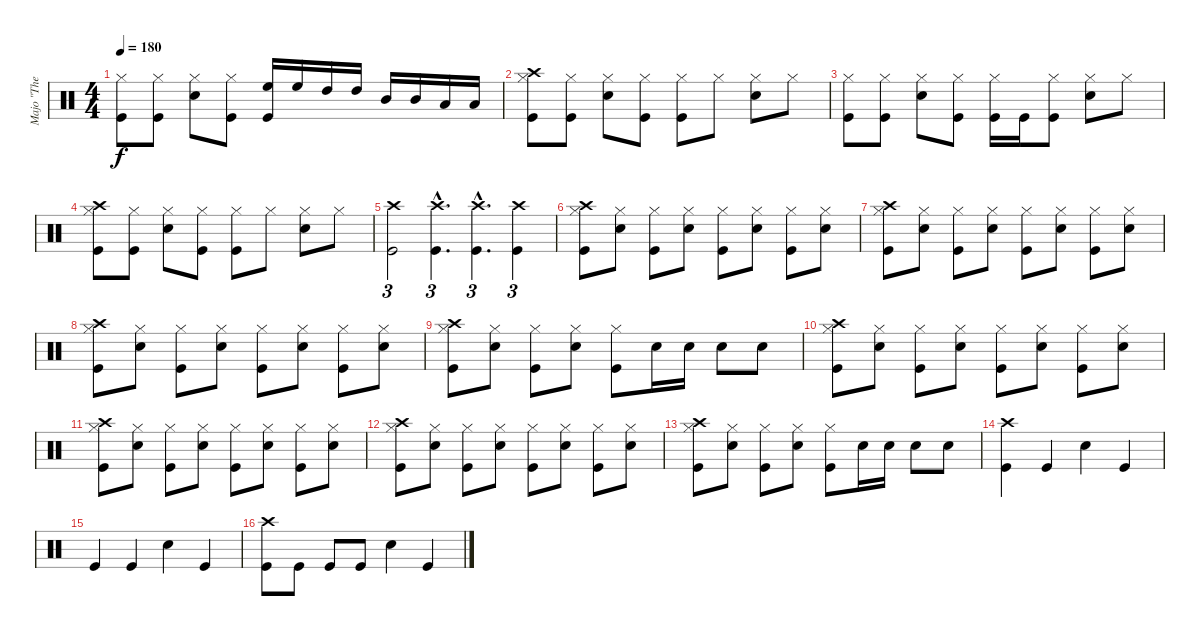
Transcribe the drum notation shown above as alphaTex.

\track ("Majo \"The Dremmel\" Hirt" "Majo \"The ") {instrument percussion}
\staff {score}
\articulation defaults
\ts (4 4)
\tempo 180
\clef neutral
\ks c
("Hi-Hat (closed)" "Kick (hit)").8{dy f} ("Hi-Hat (closed)" "Kick (hit)").8 ("Hi-Hat (closed)" "Electric Snare (hit)").8 ("Hi-Hat (closed)" "Kick (hit)").8 ("High Floor Tom (hit)" "Kick (hit)").16 "High Floor Tom (hit)".16 "High Tom (hit)".16 "High Tom (hit)".16 "Mid Tom (hit)".16 "Mid Tom (hit)".16 "Low Tom (hit)".16 "Low Tom (hit)".16 |
("Crash high (hit)" "Hi-Hat (closed)" "Kick (hit)").8 ("Hi-Hat (closed)" "Kick (hit)").8 ("Hi-Hat (closed)" "Electric Snare (hit)").8 ("Hi-Hat (closed)" "Kick (hit)").8 ("Hi-Hat (closed)" "Kick (hit)").8 "Hi-Hat (closed)".8 ("Hi-Hat (closed)" "Electric Snare (hit)").8 "Hi-Hat (closed)".8 |
("Hi-Hat (closed)" "Kick (hit)").8 ("Hi-Hat (closed)" "Kick (hit)").8 ("Hi-Hat (closed)" "Electric Snare (hit)").8 ("Hi-Hat (closed)" "Kick (hit)").8 ("Hi-Hat (closed)" "Kick (hit)").16 "Kick (hit)".16 ("Hi-Hat (closed)" "Kick (hit)").8 ("Hi-Hat (closed)" "Electric Snare (hit)").8 "Hi-Hat (closed)".8 |
("Crash high (hit)" "Hi-Hat (closed)" "Kick (hit)").8 ("Hi-Hat (closed)" "Kick (hit)").8 ("Hi-Hat (closed)" "Electric Snare (hit)").8 ("Hi-Hat (closed)" "Kick (hit)").8 ("Hi-Hat (closed)" "Kick (hit)").8 "Hi-Hat (closed)".8 ("Hi-Hat (closed)" "Electric Snare (hit)").8 "Hi-Hat (closed)".8 |
("Crash high (hit)" "Kick (hit)").2{tu (3 2)} ("Crash high (hit)"{hac} "Kick (hit)"{hac}).4{d tu (3 2)} ("Crash high (hit)"{hac} "Kick (hit)"{hac}).4{d tu (3 2)} ("Crash high (hit)" "Kick (hit)").4{tu (3 2)} |
("Crash high (hit)" "Hi-Hat (closed)" "Kick (hit)").8 ("Hi-Hat (closed)" "Electric Snare (hit)").8 ("Hi-Hat (closed)" "Kick (hit)").8 ("Hi-Hat (closed)" "Electric Snare (hit)").8 ("Hi-Hat (closed)" "Kick (hit)").8 ("Hi-Hat (closed)" "Electric Snare (hit)").8 ("Hi-Hat (closed)" "Kick (hit)").8 ("Hi-Hat (closed)" "Electric Snare (hit)").8 |
("Crash high (hit)" "Hi-Hat (closed)" "Kick (hit)").8 ("Hi-Hat (closed)" "Electric Snare (hit)").8 ("Hi-Hat (closed)" "Kick (hit)").8 ("Hi-Hat (closed)" "Electric Snare (hit)").8 ("Hi-Hat (closed)" "Kick (hit)").8 ("Hi-Hat (closed)" "Electric Snare (hit)").8 ("Hi-Hat (closed)" "Kick (hit)").8 ("Hi-Hat (closed)" "Electric Snare (hit)").8 |
("Crash high (hit)" "Hi-Hat (closed)" "Kick (hit)").8 ("Hi-Hat (closed)" "Electric Snare (hit)").8 ("Hi-Hat (closed)" "Kick (hit)").8 ("Hi-Hat (closed)" "Electric Snare (hit)").8 ("Hi-Hat (closed)" "Kick (hit)").8 ("Hi-Hat (closed)" "Electric Snare (hit)").8 ("Hi-Hat (closed)" "Kick (hit)").8 ("Hi-Hat (closed)" "Electric Snare (hit)").8 |
("Crash high (hit)" "Hi-Hat (closed)" "Kick (hit)").8 ("Hi-Hat (closed)" "Electric Snare (hit)").8 ("Hi-Hat (closed)" "Kick (hit)").8 ("Hi-Hat (closed)" "Electric Snare (hit)").8 ("Hi-Hat (closed)" "Kick (hit)").8 "Electric Snare (hit)".16 "Electric Snare (hit)".16 "Electric Snare (hit)".8 "Electric Snare (hit)".8 |
("Crash high (hit)" "Hi-Hat (closed)" "Kick (hit)").8 ("Hi-Hat (closed)" "Electric Snare (hit)").8 ("Hi-Hat (closed)" "Kick (hit)").8 ("Hi-Hat (closed)" "Electric Snare (hit)").8 ("Hi-Hat (closed)" "Kick (hit)").8 ("Hi-Hat (closed)" "Electric Snare (hit)").8 ("Hi-Hat (closed)" "Kick (hit)").8 ("Hi-Hat (closed)" "Electric Snare (hit)").8 |
("Crash high (hit)" "Hi-Hat (closed)" "Kick (hit)").8 ("Hi-Hat (closed)" "Electric Snare (hit)").8 ("Hi-Hat (closed)" "Kick (hit)").8 ("Hi-Hat (closed)" "Electric Snare (hit)").8 ("Hi-Hat (closed)" "Kick (hit)").8 ("Hi-Hat (closed)" "Electric Snare (hit)").8 ("Hi-Hat (closed)" "Kick (hit)").8 ("Hi-Hat (closed)" "Electric Snare (hit)").8 |
("Crash high (hit)" "Hi-Hat (closed)" "Kick (hit)").8 ("Hi-Hat (closed)" "Electric Snare (hit)").8 ("Hi-Hat (closed)" "Kick (hit)").8 ("Hi-Hat (closed)" "Electric Snare (hit)").8 ("Hi-Hat (closed)" "Kick (hit)").8 ("Hi-Hat (closed)" "Electric Snare (hit)").8 ("Hi-Hat (closed)" "Kick (hit)").8 ("Hi-Hat (closed)" "Electric Snare (hit)").8 |
("Crash high (hit)" "Hi-Hat (closed)" "Kick (hit)").8 ("Hi-Hat (closed)" "Electric Snare (hit)").8 ("Hi-Hat (closed)" "Kick (hit)").8 ("Hi-Hat (closed)" "Electric Snare (hit)").8 ("Hi-Hat (closed)" "Kick (hit)").8 "Electric Snare (hit)".16 "Electric Snare (hit)".16 "Electric Snare (hit)".8 "Electric Snare (hit)".8 |
("Crash high (hit)" "Kick (hit)").4 "Kick (hit)".4 "Electric Snare (hit)".4 "Kick (hit)".4 |
"Kick (hit)".4 "Kick (hit)".4 "Electric Snare (hit)".4 "Kick (hit)".4 |
("Crash high (hit)" "Kick (hit)").8 "Kick (hit)".8 "Kick (hit)".8 "Kick (hit)".8 "Electric Snare (hit)".4 "Kick (hit)".4
